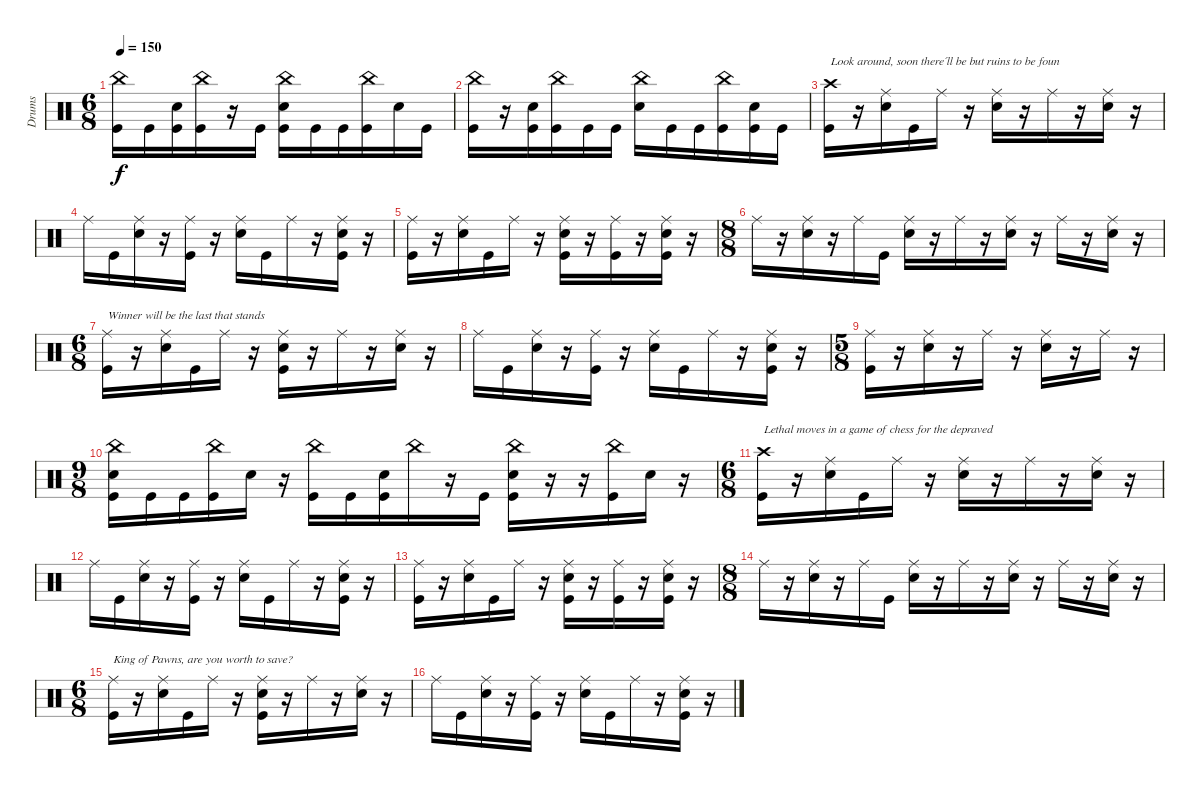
\track ("Drums" "Drums") {instrument percussion}
\staff {score}
\articulation defaults
\ts (6 8)
\tempo 150
\clef neutral
\ks c
("China (hit)" "Kick (hit)").16{dy f} "Kick (hit)".16 ("Snare (hit) 2" "Kick (hit)").16 ("China (hit)" "Kick (hit)").16 r.16 "Kick (hit)".16 ("China (hit)" "Snare (hit) 2" "Kick (hit)").16 "Kick (hit)".16 "Kick (hit)".16 ("China (hit)" "Kick (hit)").16 "Snare (hit) 2".16 "Kick (hit)".16 |
("China (hit)" "Kick (hit)").16 r.16 ("Snare (hit) 2" "Kick (hit)").16 ("China (hit)" "Kick (hit)").16 "Kick (hit)".16 "Kick (hit)".16 ("China (hit)" "Snare (hit) 2").16 "Kick (hit)".16 "Kick (hit)".16 ("China (hit)" "Kick (hit)").16 ("Snare (hit) 2" "Kick (hit)").16 "Kick (hit)".16 |
("Crash high (hit)" "Kick (hit)").16{txt "Look around, soon there´ll be but ruins to be foun"} r.16 ("Ride (middle)" "Snare (hit) 2").16 "Kick (hit)".16 "Ride (middle)".16 r.16 ("Ride (middle)" "Snare (hit) 2").16 r.16 "Ride (middle)".16 r.16 ("Ride (middle)" "Snare (hit) 2").16 r.16 |
"Ride (middle)".16 "Kick (hit)".16 ("Ride (middle)" "Snare (hit) 2").16 r.16 ("Ride (middle)" "Kick (hit)").16 r.16 ("Ride (middle)" "Snare (hit) 2").16 "Kick (hit)".16 "Ride (middle)".16 r.16 ("Ride (middle)" "Snare (hit) 2" "Kick (hit)").16 r.16 |
("Ride (middle)" "Kick (hit)").16 r.16 ("Ride (middle)" "Snare (hit) 2").16 "Kick (hit)".16 "Ride (middle)".16 r.16 ("Ride (middle)" "Snare (hit) 2" "Kick (hit)").16 r.16 ("Ride (middle)" "Kick (hit)").16 r.16 ("Ride (middle)" "Snare (hit) 2" "Kick (hit)").16 r.16 |
\ts (8 8)
"Ride (middle)".16 r.16 ("Ride (middle)" "Snare (hit) 2").16 r.16 "Ride (middle)".16 "Kick (hit)".16 ("Ride (middle)" "Snare (hit) 2").16 r.16 "Ride (middle)".16 r.16 ("Ride (middle)" "Snare (hit) 2").16 r.16 "Ride (middle)".16 r.16 ("Ride (middle)" "Snare (hit) 2").16 r.16 |
\ts (6 8)
("Ride (middle)" "Kick (hit)").16{txt "Winner will be the last that stands"} r.16 ("Ride (middle)" "Snare (hit) 2").16 "Kick (hit)".16 "Ride (middle)".16 r.16 ("Ride (middle)" "Snare (hit) 2" "Kick (hit)").16 r.16 "Ride (middle)".16 r.16 ("Ride (middle)" "Snare (hit) 2").16 r.16 |
"Ride (middle)".16 "Kick (hit)".16 ("Ride (middle)" "Snare (hit) 2").16 r.16 ("Ride (middle)" "Kick (hit)").16 r.16 ("Ride (middle)" "Snare (hit) 2").16 "Kick (hit)".16 "Ride (middle)".16 r.16 ("Ride (middle)" "Snare (hit) 2" "Kick (hit)").16 r.16 |
\ts (5 8)
("Ride (middle)" "Kick (hit)").16 r.16 ("Ride (middle)" "Snare (hit) 2").16 r.16 "Ride (middle)".16 r.16 ("Ride (middle)" "Snare (hit) 2").16 r.16 "Ride (middle)".16 r.16 |
\ts (9 8)
("China (hit)" "Snare (hit) 2" "Kick (hit)").16 "Kick (hit)".16 "Kick (hit)".16 ("China (hit)" "Kick (hit)").16 "Snare (hit) 2".16 r.16 ("China (hit)" "Kick (hit)").16 "Kick (hit)".16 ("Snare (hit) 2" "Kick (hit)").16 "China (hit)".16 r.16 "Kick (hit)".16 ("China (hit)" "Snare (hit) 2" "Kick (hit)").16 r.16 r.16 ("China (hit)" "Kick (hit)").16 "Snare (hit) 2".16 r.16 |
\ts (6 8)
("Crash high (hit)" "Kick (hit)").16{txt "Lethal moves in a game of chess for the depraved"} r.16 ("Ride (middle)" "Snare (hit) 2").16 "Kick (hit)".16 "Ride (middle)".16 r.16 ("Ride (middle)" "Snare (hit) 2").16 r.16 "Ride (middle)".16 r.16 ("Ride (middle)" "Snare (hit) 2").16 r.16 |
"Ride (middle)".16 "Kick (hit)".16 ("Ride (middle)" "Snare (hit) 2").16 r.16 ("Ride (middle)" "Kick (hit)").16 r.16 ("Ride (middle)" "Snare (hit) 2").16 "Kick (hit)".16 "Ride (middle)".16 r.16 ("Ride (middle)" "Snare (hit) 2" "Kick (hit)").16 r.16 |
("Ride (middle)" "Kick (hit)").16 r.16 ("Ride (middle)" "Snare (hit) 2").16 "Kick (hit)".16 "Ride (middle)".16 r.16 ("Ride (middle)" "Snare (hit) 2" "Kick (hit)").16 r.16 ("Ride (middle)" "Kick (hit)").16 r.16 ("Ride (middle)" "Snare (hit) 2" "Kick (hit)").16 r.16 |
\ts (8 8)
"Ride (middle)".16 r.16 ("Ride (middle)" "Snare (hit) 2").16 r.16 "Ride (middle)".16 "Kick (hit)".16 ("Ride (middle)" "Snare (hit) 2").16 r.16 "Ride (middle)".16 r.16 ("Ride (middle)" "Snare (hit) 2").16 r.16 "Ride (middle)".16 r.16 ("Ride (middle)" "Snare (hit) 2").16 r.16 |
\ts (6 8)
("Ride (middle)" "Kick (hit)").16{txt "King of Pawns, are you worth to save?"} r.16 ("Ride (middle)" "Snare (hit) 2").16 "Kick (hit)".16 "Ride (middle)".16 r.16 ("Ride (middle)" "Snare (hit) 2" "Kick (hit)").16 r.16 "Ride (middle)".16 r.16 ("Ride (middle)" "Snare (hit) 2").16 r.16 |
"Ride (middle)".16 "Kick (hit)".16 ("Ride (middle)" "Snare (hit) 2").16 r.16 ("Ride (middle)" "Kick (hit)").16 r.16 ("Ride (middle)" "Snare (hit) 2").16 "Kick (hit)".16 "Ride (middle)".16 r.16 ("Ride (middle)" "Snare (hit) 2" "Kick (hit)").16 r.16
